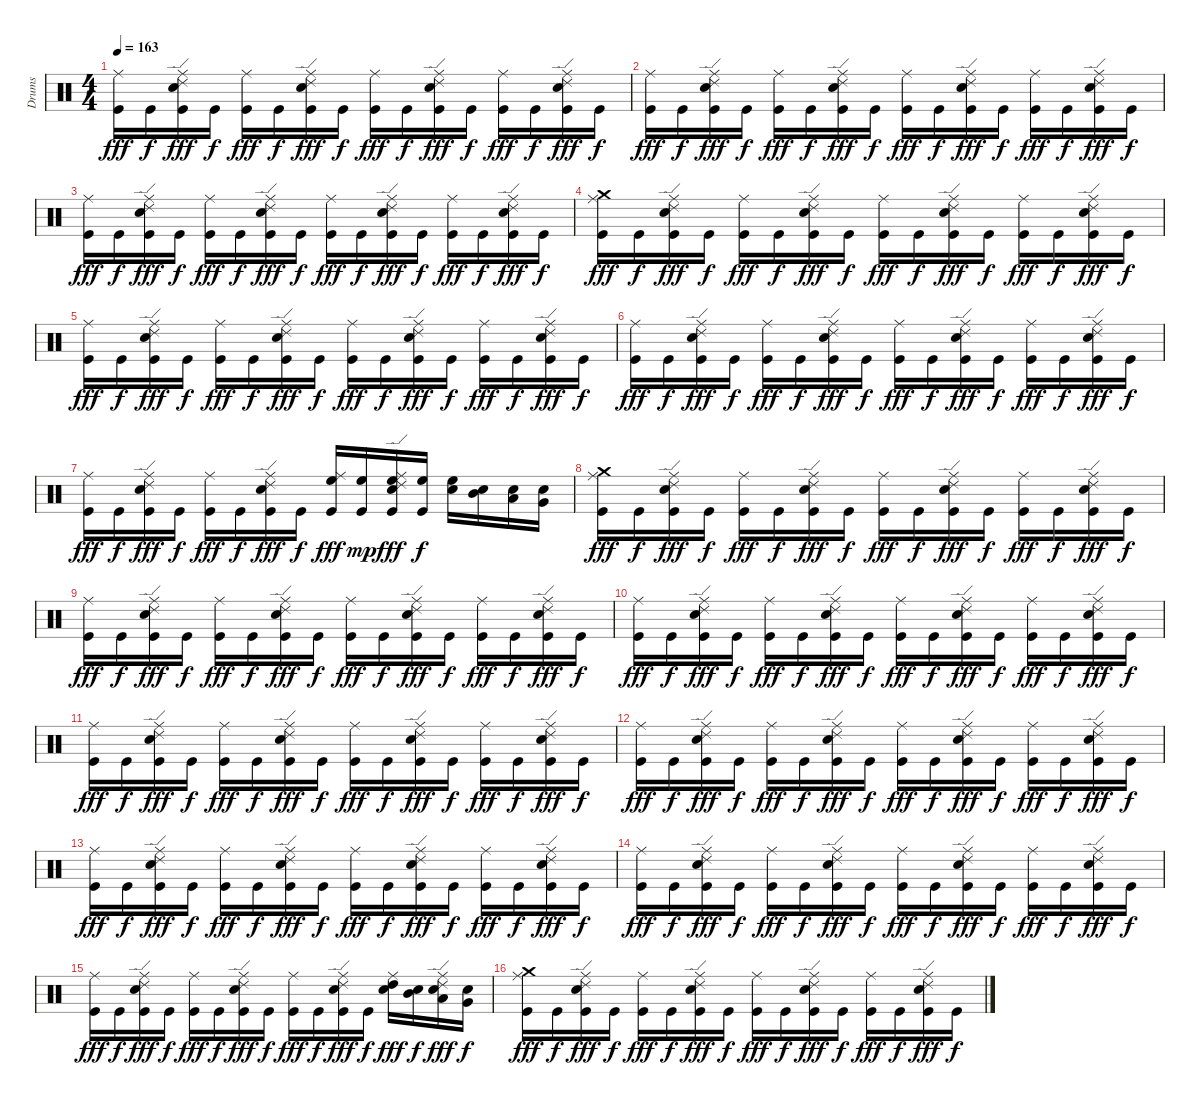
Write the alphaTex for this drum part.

\track ("Drums" "Drums") {instrument percussion}
\staff {score}
\articulation defaults
\ts (4 4)
\tempo 163
\clef neutral
\ks c
("Kick (hit)" "Ride (middle)").16{dy fff} "Kick (hit)".16{dy f} ("Ride (middle)" "Kick (hit)" "Ride (edge) 2" "Electric Snare (hit)").16{dy fff} "Kick (hit)".16{dy f} ("Kick (hit)" "Ride (middle)").16{dy fff} "Kick (hit)".16{dy f} ("Ride (edge) 2" "Electric Snare (hit)" "Kick (hit)" "Ride (middle)").16{dy fff} "Kick (hit)".16{dy f} ("Ride (middle)" "Kick (hit)").16{dy fff} "Kick (hit)".16{dy f} ("Kick (hit)" "Ride (edge) 2" "Electric Snare (hit)" "Ride (middle)").16{dy fff} "Kick (hit)".16{dy f} ("Ride (middle)" "Kick (hit)").16{dy fff} "Kick (hit)".16{dy f} ("Ride (edge) 2" "Electric Snare (hit)" "Kick (hit)" "Ride (middle)").16{dy fff} "Kick (hit)".16{dy f} |
("Ride (middle)" "Kick (hit)").16{dy fff} "Kick (hit)".16{dy f} ("Electric Snare (hit)" "Kick (hit)" "Ride (edge) 2" "Ride (middle)").16{dy fff} "Kick (hit)".16{dy f} ("Ride (middle)" "Kick (hit)").16{dy fff} "Kick (hit)".16{dy f} ("Ride (middle)" "Ride (edge) 2" "Kick (hit)" "Electric Snare (hit)").16{dy fff} "Kick (hit)".16{dy f} ("Kick (hit)" "Ride (middle)").16{dy fff} "Kick (hit)".16{dy f} ("Electric Snare (hit)" "Kick (hit)" "Ride (middle)" "Ride (edge) 2").16{dy fff} "Kick (hit)".16{dy f} ("Ride (middle)" "Kick (hit)").16{dy fff} "Kick (hit)".16{dy f} ("Electric Snare (hit)" "Ride (middle)" "Kick (hit)" "Ride (edge) 2").16{dy fff} "Kick (hit)".16{dy f} |
("Ride (middle)" "Kick (hit)").16{dy fff} "Kick (hit)".16{dy f} ("Electric Snare (hit)" "Kick (hit)" "Ride (edge) 2" "Ride (middle)").16{dy fff} "Kick (hit)".16{dy f} ("Ride (middle)" "Kick (hit)").16{dy fff} "Kick (hit)".16{dy f} ("Ride (middle)" "Ride (edge) 2" "Kick (hit)" "Electric Snare (hit)").16{dy fff} "Kick (hit)".16{dy f} ("Kick (hit)" "Ride (middle)").16{dy fff} "Kick (hit)".16{dy f} ("Electric Snare (hit)" "Kick (hit)" "Ride (middle)" "Ride (edge) 2").16{dy fff} "Kick (hit)".16{dy f} ("Ride (middle)" "Kick (hit)").16{dy fff} "Kick (hit)".16{dy f} ("Kick (hit)" "Ride (edge) 2" "Electric Snare (hit)" "Ride (middle)").16{dy fff} "Kick (hit)".16{dy f} |
("Crash medium (hit)" "Kick (hit)" "Ride (middle)").16{dy fff} "Kick (hit)".16{dy f} ("Kick (hit)" "Ride (middle)" "Ride (edge) 2" "Electric Snare (hit)").16{dy fff} "Kick (hit)".16{dy f} ("Kick (hit)" "Ride (middle)").16{dy fff} "Kick (hit)".16{dy f} ("Ride (middle)" "Ride (edge) 2" "Kick (hit)" "Electric Snare (hit)").16{dy fff} "Kick (hit)".16{dy f} ("Kick (hit)" "Ride (middle)").16{dy fff} "Kick (hit)".16{dy f} ("Ride (edge) 2" "Kick (hit)" "Electric Snare (hit)" "Ride (middle)").16{dy fff} "Kick (hit)".16{dy f} ("Kick (hit)" "Ride (middle)").16{dy fff} "Kick (hit)".16{dy f} ("Ride (middle)" "Kick (hit)" "Electric Snare (hit)" "Ride (edge) 2").16{dy fff} "Kick (hit)".16{dy f} |
("Ride (middle)" "Kick (hit)").16{dy fff} "Kick (hit)".16{dy f} ("Kick (hit)" "Electric Snare (hit)" "Ride (middle)" "Ride (edge) 2").16{dy fff} "Kick (hit)".16{dy f} ("Ride (middle)" "Kick (hit)").16{dy fff} "Kick (hit)".16{dy f} ("Ride (edge) 2" "Kick (hit)" "Ride (middle)" "Electric Snare (hit)").16{dy fff} "Kick (hit)".16{dy f} ("Ride (middle)" "Kick (hit)").16{dy fff} "Kick (hit)".16{dy f} ("Ride (edge) 2" "Ride (middle)" "Kick (hit)" "Electric Snare (hit)").16{dy fff} "Kick (hit)".16{dy f} ("Kick (hit)" "Ride (middle)").16{dy fff} "Kick (hit)".16{dy f} ("Ride (edge) 2" "Kick (hit)" "Ride (middle)" "Electric Snare (hit)").16{dy fff} "Kick (hit)".16{dy f} |
("Ride (middle)" "Kick (hit)").16{dy fff} "Kick (hit)".16{dy f} ("Electric Snare (hit)" "Kick (hit)" "Ride (middle)" "Ride (edge) 2").16{dy fff} "Kick (hit)".16{dy f} ("Kick (hit)" "Ride (middle)").16{dy fff} "Kick (hit)".16{dy f} ("Ride (edge) 2" "Kick (hit)" "Electric Snare (hit)" "Ride (middle)").16{dy fff} "Kick (hit)".16{dy f} ("Ride (middle)" "Kick (hit)").16{dy fff} "Kick (hit)".16{dy f} ("Ride (middle)" "Kick (hit)" "Electric Snare (hit)" "Ride (edge) 2").16{dy fff} "Kick (hit)".16{dy f} ("Ride (middle)" "Kick (hit)").16{dy fff} "Kick (hit)".16{dy f} ("Ride (edge) 2" "Kick (hit)" "Electric Snare (hit)" "Ride (middle)").16{dy fff} "Kick (hit)".16{dy f} |
("Ride (middle)" "Kick (hit)").16{dy fff} "Kick (hit)".16{dy f} ("Electric Snare (hit)" "Ride (middle)" "Ride (edge) 2" "Kick (hit)").16{dy fff} "Kick (hit)".16{dy f} ("Ride (middle)" "Kick (hit)").16{dy fff} "Kick (hit)".16{dy f} ("Ride (edge) 2" "Ride (middle)" "Kick (hit)" "Electric Snare (hit)").16{dy fff} "Kick (hit)".16{dy f} ("High Floor Tom (hit)" "Ride (middle)" "Kick (hit)").16{dy fff} ("High Floor Tom (hit)" "Kick (hit)").16{dy mp} ("High Floor Tom (hit)" "Ride (edge) 2" "Kick (hit)" "Ride (middle)" "Electric Snare (hit)").16{dy fff} ("High Floor Tom (hit)" "Kick (hit)").16{dy f} ("High Floor Tom (hit)" "Electric Snare (hit)").16 ("Mid Tom (hit)" "Electric Snare (hit)").16 ("Low Tom (hit)" "Electric Snare (hit)").16 ("Very Low Tom (hit)" "Electric Snare (hit)").16 |
("Crash medium (hit)" "Kick (hit)" "Ride (middle)").16{dy fff} "Kick (hit)".16{dy f} ("Kick (hit)" "Electric Snare (hit)" "Ride (middle)" "Ride (edge) 2").16{dy fff} "Kick (hit)".16{dy f} ("Kick (hit)" "Ride (middle)").16{dy fff} "Kick (hit)".16{dy f} ("Kick (hit)" "Ride (edge) 2" "Electric Snare (hit)" "Ride (middle)").16{dy fff} "Kick (hit)".16{dy f} ("Kick (hit)" "Ride (middle)").16{dy fff} "Kick (hit)".16{dy f} ("Ride (edge) 2" "Electric Snare (hit)" "Kick (hit)" "Ride (middle)").16{dy fff} "Kick (hit)".16{dy f} ("Kick (hit)" "Ride (middle)").16{dy fff} "Kick (hit)".16{dy f} ("Ride (middle)" "Ride (edge) 2" "Electric Snare (hit)" "Kick (hit)").16{dy fff} "Kick (hit)".16{dy f} |
("Ride (middle)" "Kick (hit)").16{dy fff} "Kick (hit)".16{dy f} ("Electric Snare (hit)" "Kick (hit)" "Ride (middle)" "Ride (edge) 2").16{dy fff} "Kick (hit)".16{dy f} ("Kick (hit)" "Ride (middle)").16{dy fff} "Kick (hit)".16{dy f} ("Electric Snare (hit)" "Kick (hit)" "Ride (middle)" "Ride (edge) 2").16{dy fff} "Kick (hit)".16{dy f} ("Ride (middle)" "Kick (hit)").16{dy fff} "Kick (hit)".16{dy f} ("Ride (middle)" "Ride (edge) 2" "Kick (hit)" "Electric Snare (hit)").16{dy fff} "Kick (hit)".16{dy f} ("Ride (middle)" "Kick (hit)").16{dy fff} "Kick (hit)".16{dy f} ("Electric Snare (hit)" "Kick (hit)" "Ride (middle)" "Ride (edge) 2").16{dy fff} "Kick (hit)".16{dy f} |
("Kick (hit)" "Ride (middle)").16{dy fff} "Kick (hit)".16{dy f} ("Ride (middle)" "Kick (hit)" "Ride (edge) 2" "Electric Snare (hit)").16{dy fff} "Kick (hit)".16{dy f} ("Kick (hit)" "Ride (middle)").16{dy fff} "Kick (hit)".16{dy f} ("Ride (edge) 2" "Electric Snare (hit)" "Kick (hit)" "Ride (middle)").16{dy fff} "Kick (hit)".16{dy f} ("Ride (middle)" "Kick (hit)").16{dy fff} "Kick (hit)".16{dy f} ("Ride (middle)" "Ride (edge) 2" "Electric Snare (hit)" "Kick (hit)").16{dy fff} "Kick (hit)".16{dy f} ("Ride (middle)" "Kick (hit)").16{dy fff} "Kick (hit)".16{dy f} ("Kick (hit)" "Electric Snare (hit)" "Ride (edge) 2" "Ride (middle)").16{dy fff} "Kick (hit)".16{dy f} |
("Ride (middle)" "Kick (hit)").16{dy fff} "Kick (hit)".16{dy f} ("Electric Snare (hit)" "Kick (hit)" "Ride (middle)" "Ride (edge) 2").16{dy fff} "Kick (hit)".16{dy f} ("Kick (hit)" "Ride (middle)").16{dy fff} "Kick (hit)".16{dy f} ("Electric Snare (hit)" "Kick (hit)" "Ride (middle)" "Ride (edge) 2").16{dy fff} "Kick (hit)".16{dy f} ("Kick (hit)" "Ride (middle)").16{dy fff} "Kick (hit)".16{dy f} ("Kick (hit)" "Ride (edge) 2" "Electric Snare (hit)" "Ride (middle)").16{dy fff} "Kick (hit)".16{dy f} ("Ride (middle)" "Kick (hit)").16{dy fff} "Kick (hit)".16{dy f} ("Ride (edge) 2" "Electric Snare (hit)" "Kick (hit)" "Ride (middle)").16{dy fff} "Kick (hit)".16{dy f} |
("Kick (hit)" "Ride (middle)").16{dy fff} "Kick (hit)".16{dy f} ("Kick (hit)" "Electric Snare (hit)" "Ride (middle)" "Ride (edge) 2").16{dy fff} "Kick (hit)".16{dy f} ("Kick (hit)" "Ride (middle)").16{dy fff} "Kick (hit)".16{dy f} ("Kick (hit)" "Ride (edge) 2" "Electric Snare (hit)" "Ride (middle)").16{dy fff} "Kick (hit)".16{dy f} ("Kick (hit)" "Ride (middle)").16{dy fff} "Kick (hit)".16{dy f} ("Ride (edge) 2" "Electric Snare (hit)" "Kick (hit)" "Ride (middle)").16{dy fff} "Kick (hit)".16{dy f} ("Kick (hit)" "Ride (middle)").16{dy fff} "Kick (hit)".16{dy f} ("Ride (middle)" "Ride (edge) 2" "Electric Snare (hit)" "Kick (hit)").16{dy fff} "Kick (hit)".16{dy f} |
("Ride (middle)" "Kick (hit)").16{dy fff} "Kick (hit)".16{dy f} ("Electric Snare (hit)" "Kick (hit)" "Ride (middle)" "Ride (edge) 2").16{dy fff} "Kick (hit)".16{dy f} ("Kick (hit)" "Ride (middle)").16{dy fff} "Kick (hit)".16{dy f} ("Electric Snare (hit)" "Kick (hit)" "Ride (middle)" "Ride (edge) 2").16{dy fff} "Kick (hit)".16{dy f} ("Ride (middle)" "Kick (hit)").16{dy fff} "Kick (hit)".16{dy f} ("Ride (middle)" "Ride (edge) 2" "Kick (hit)" "Electric Snare (hit)").16{dy fff} "Kick (hit)".16{dy f} ("Ride (middle)" "Kick (hit)").16{dy fff} "Kick (hit)".16{dy f} ("Electric Snare (hit)" "Kick (hit)" "Ride (middle)" "Ride (edge) 2").16{dy fff} "Kick (hit)".16{dy f} |
("Kick (hit)" "Ride (middle)").16{dy fff} "Kick (hit)".16{dy f} ("Ride (middle)" "Kick (hit)" "Ride (edge) 2" "Electric Snare (hit)").16{dy fff} "Kick (hit)".16{dy f} ("Kick (hit)" "Ride (middle)").16{dy fff} "Kick (hit)".16{dy f} ("Ride (edge) 2" "Electric Snare (hit)" "Kick (hit)" "Ride (middle)").16{dy fff} "Kick (hit)".16{dy f} ("Ride (middle)" "Kick (hit)").16{dy fff} "Kick (hit)".16{dy f} ("Ride (middle)" "Ride (edge) 2" "Electric Snare (hit)" "Kick (hit)").16{dy fff} "Kick (hit)".16{dy f} ("Ride (middle)" "Kick (hit)").16{dy fff} "Kick (hit)".16{dy f} ("Kick (hit)" "Electric Snare (hit)" "Ride (edge) 2" "Ride (middle)").16{dy fff} "Kick (hit)".16{dy f} |
("Ride (middle)" "Kick (hit)").16{dy fff} "Kick (hit)".16{dy f} ("Electric Snare (hit)" "Kick (hit)" "Ride (middle)" "Ride (edge) 2").16{dy fff} "Kick (hit)".16{dy f} ("Kick (hit)" "Ride (middle)").16{dy fff} "Kick (hit)".16{dy f} ("Electric Snare (hit)" "Kick (hit)" "Ride (middle)" "Ride (edge) 2").16{dy fff} "Kick (hit)".16{dy f} ("Kick (hit)" "Ride (middle)").16{dy fff} "Kick (hit)".16{dy f} ("Kick (hit)" "Ride (edge) 2" "Electric Snare (hit)" "Ride (middle)").16{dy fff} "Kick (hit)".16{dy f} ("Electric Snare (hit)" "Ride (middle)" "High Tom (hit)").16{dy fff} ("Electric Snare (hit)" "Mid Tom (hit)").16{dy f} ("Electric Snare (hit)" "Low Tom (hit)" "Ride (edge) 2" "Ride (middle)").16{dy fff} ("Very Low Tom (hit)" "Electric Snare (hit)").16{dy f} |
("Ride (middle)" "Kick (hit)" "Crash medium (hit)").16{dy fff} "Kick (hit)".16{dy f} ("Electric Snare (hit)" "Kick (hit)" "Ride (middle)" "Ride (edge) 2").16{dy fff} "Kick (hit)".16{dy f} ("Kick (hit)" "Ride (middle)").16{dy fff} "Kick (hit)".16{dy f} ("Kick (hit)" "Ride (edge) 2" "Electric Snare (hit)" "Ride (middle)").16{dy fff} "Kick (hit)".16{dy f} ("Kick (hit)" "Ride (middle)").16{dy fff} "Kick (hit)".16{dy f} ("Ride (edge) 2" "Electric Snare (hit)" "Kick (hit)" "Ride (middle)").16{dy fff} "Kick (hit)".16{dy f} ("Kick (hit)" "Ride (middle)").16{dy fff} "Kick (hit)".16{dy f} ("Ride (middle)" "Ride (edge) 2" "Electric Snare (hit)" "Kick (hit)").16{dy fff} "Kick (hit)".16{dy f}
